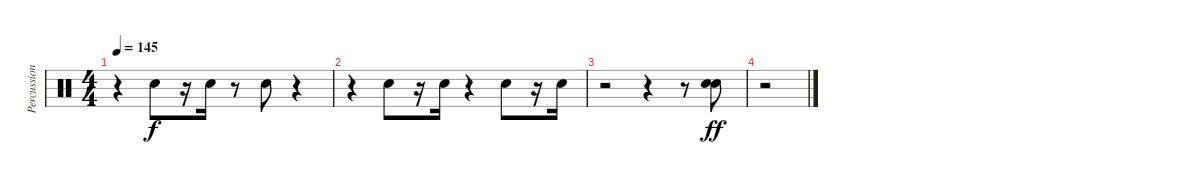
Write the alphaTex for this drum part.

\track ("Percussion" "Percussion") {instrument percussion}
\staff {score}
\articulation defaults
\ts (4 4)
\tempo 145
\clef neutral
\ks c
r.4{dy f} "Snare (hit) 2".8 r.16 "Snare (hit) 2".16 r.8 "Snare (hit) 2".8 r.4 |
r.4 "Snare (hit) 2".8 r.16 "Snare (hit) 2".16 r.4 "Snare (hit) 2".8 r.16 "Snare (hit) 2".16 |
r.2 r.4 r.8 ("Snare (hit) 2" "Electric Snare (hit)").8{dy ff} |
r.2
